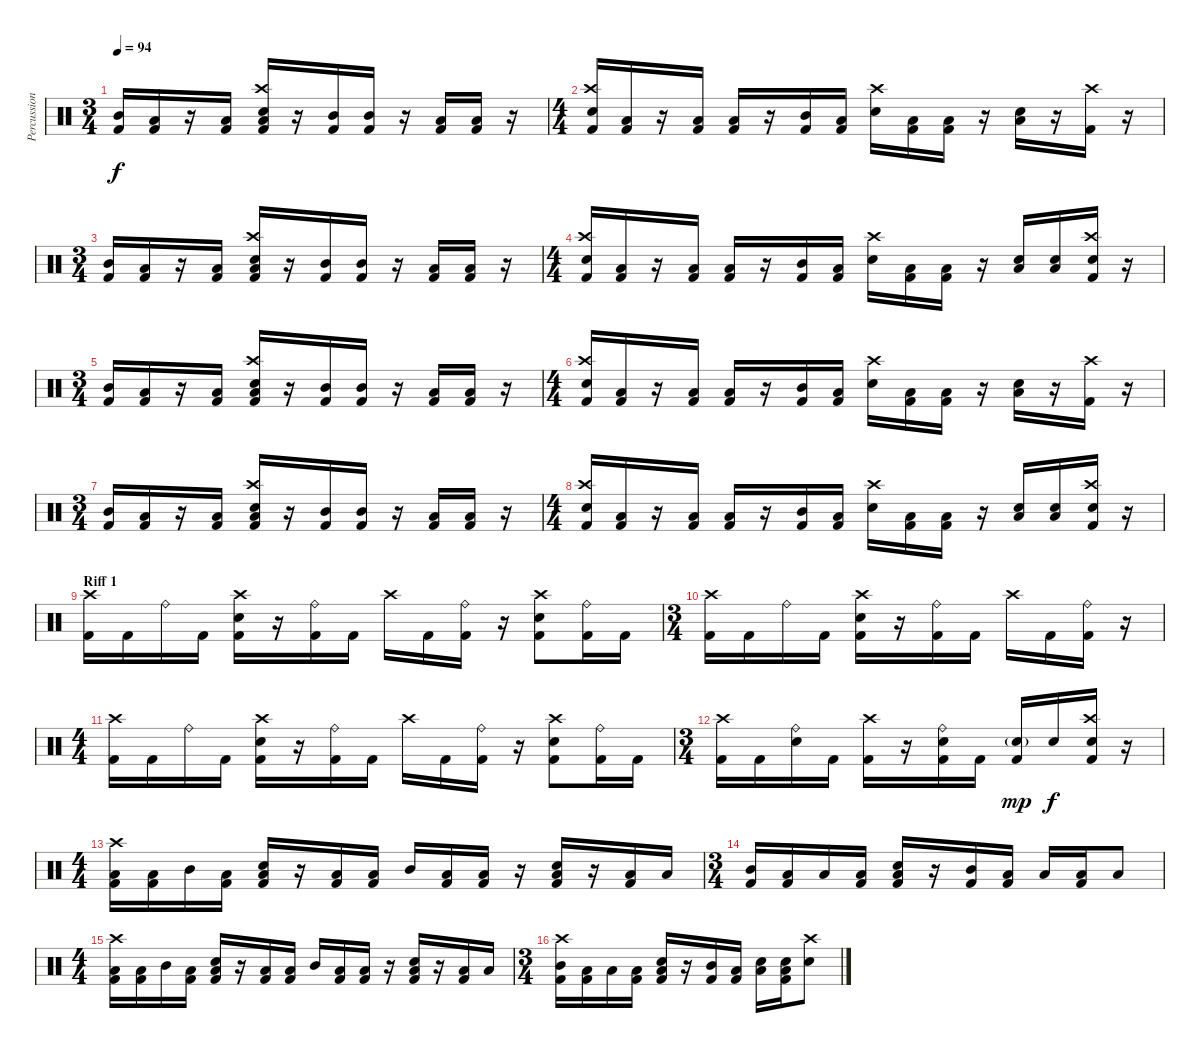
\track ("Percussion" "Percussion") {instrument percussion}
\staff {score}
\articulation defaults
\ts (3 4)
\tempo 94
\clef neutral
\ks c
("Mid Tom (hit)" "Kick (hit) 2").16{dy f} ("Low Tom (hit)" "Kick (hit) 2").16 r.16 ("Low Tom (hit)" "Kick (hit) 2").16 ("Crash high (hit)" "Electric Snare (hit)" "Low Floor Tom (hit)" "Kick (hit) 2").16 r.16 ("Mid Tom (hit)" "Kick (hit) 2").16 ("Mid Tom (hit)" "Kick (hit) 2").16 r.16 ("Low Tom (hit)" "Kick (hit) 2").16 ("Low Floor Tom (hit)" "Kick (hit) 2").16 r.16 |
\ts (4 4)
("Crash high (hit)" "Electric Snare (hit)" "Kick (hit) 2").16 ("Low Tom (hit)" "Kick (hit) 2").16 r.16 ("Low Tom (hit)" "Kick (hit) 2").16 ("Low Floor Tom (hit)" "Kick (hit) 2").16 r.16 ("Mid Tom (hit)" "Kick (hit) 2").16 ("Low Tom (hit)" "Kick (hit) 2").16 ("Crash high (hit)" "Electric Snare (hit)").16 ("Low Tom (hit)" "Kick (hit) 2").16 ("Low Floor Tom (hit)" "Kick (hit) 2").16 r.16 ("Electric Snare (hit)" "Low Floor Tom (hit)").16 r.16 ("Crash high (hit)" "Kick (hit) 2").16 r.16 |
\ts (3 4)
("Mid Tom (hit)" "Kick (hit) 2").16 ("Low Tom (hit)" "Kick (hit) 2").16 r.16 ("Low Tom (hit)" "Kick (hit) 2").16 ("Crash high (hit)" "Electric Snare (hit)" "Low Floor Tom (hit)" "Kick (hit) 2").16 r.16 ("Mid Tom (hit)" "Kick (hit) 2").16 ("Mid Tom (hit)" "Kick (hit) 2").16 r.16 ("Low Tom (hit)" "Kick (hit) 2").16 ("Low Floor Tom (hit)" "Kick (hit) 2").16 r.16 |
\ts (4 4)
("Crash high (hit)" "Electric Snare (hit)" "Kick (hit) 2").16 ("Low Tom (hit)" "Kick (hit) 2").16 r.16 ("Low Tom (hit)" "Kick (hit) 2").16 ("Low Floor Tom (hit)" "Kick (hit) 2").16 r.16 ("Mid Tom (hit)" "Kick (hit) 2").16 ("Low Tom (hit)" "Kick (hit) 2").16 ("Crash high (hit)" "Electric Snare (hit)").16 ("Low Tom (hit)" "Kick (hit) 2").16 ("Low Floor Tom (hit)" "Kick (hit) 2").16 r.16 ("Electric Snare (hit)" "Low Floor Tom (hit)").16 ("Electric Snare (hit)" "Low Floor Tom (hit)").16 ("Crash high (hit)" "Electric Snare (hit)" "Kick (hit) 2").16 r.16 |
\ts (3 4)
("Mid Tom (hit)" "Kick (hit) 2").16 ("Low Tom (hit)" "Kick (hit) 2").16 r.16 ("Low Tom (hit)" "Kick (hit) 2").16 ("Crash high (hit)" "Electric Snare (hit)" "Low Floor Tom (hit)" "Kick (hit) 2").16 r.16 ("Mid Tom (hit)" "Kick (hit) 2").16 ("Mid Tom (hit)" "Kick (hit) 2").16 r.16 ("Low Tom (hit)" "Kick (hit) 2").16 ("Low Floor Tom (hit)" "Kick (hit) 2").16 r.16 |
\ts (4 4)
("Crash high (hit)" "Electric Snare (hit)" "Kick (hit) 2").16 ("Low Tom (hit)" "Kick (hit) 2").16 r.16 ("Low Tom (hit)" "Kick (hit) 2").16 ("Low Floor Tom (hit)" "Kick (hit) 2").16 r.16 ("Mid Tom (hit)" "Kick (hit) 2").16 ("Low Tom (hit)" "Kick (hit) 2").16 ("Crash high (hit)" "Electric Snare (hit)").16 ("Low Tom (hit)" "Kick (hit) 2").16 ("Low Floor Tom (hit)" "Kick (hit) 2").16 r.16 ("Electric Snare (hit)" "Low Floor Tom (hit)").16 r.16 ("Crash high (hit)" "Kick (hit) 2").16 r.16 |
\ts (3 4)
("Mid Tom (hit)" "Kick (hit) 2").16 ("Low Tom (hit)" "Kick (hit) 2").16 r.16 ("Low Tom (hit)" "Kick (hit) 2").16 ("Crash high (hit)" "Electric Snare (hit)" "Low Floor Tom (hit)" "Kick (hit) 2").16 r.16 ("Mid Tom (hit)" "Kick (hit) 2").16 ("Mid Tom (hit)" "Kick (hit) 2").16 r.16 ("Low Tom (hit)" "Kick (hit) 2").16 ("Low Floor Tom (hit)" "Kick (hit) 2").16 r.16 |
\ts (4 4)
("Crash high (hit)" "Electric Snare (hit)" "Kick (hit) 2").16 ("Low Tom (hit)" "Kick (hit) 2").16 r.16 ("Low Tom (hit)" "Kick (hit) 2").16 ("Low Floor Tom (hit)" "Kick (hit) 2").16 r.16 ("Mid Tom (hit)" "Kick (hit) 2").16 ("Low Tom (hit)" "Kick (hit) 2").16 ("Crash high (hit)" "Electric Snare (hit)").16 ("Low Tom (hit)" "Kick (hit) 2").16 ("Low Floor Tom (hit)" "Kick (hit) 2").16 r.16 ("Electric Snare (hit)" "Low Floor Tom (hit)").16 ("Electric Snare (hit)" "Low Floor Tom (hit)").16 ("Crash high (hit)" "Electric Snare (hit)" "Kick (hit) 2").16 r.16 |
\section ("" "Riff 1")
("Crash high (hit)" "Kick (hit) 2").16 "Kick (hit) 2".16 "Ride (bell)".16 "Kick (hit) 2".16 ("Crash high (hit)" "Electric Snare (hit)" "Kick (hit) 2").16 r.16 ("Ride (bell)" "Kick (hit) 2").16 "Kick (hit) 2".16 "Crash high (hit)".16 "Kick (hit) 2".16 ("Ride (bell)" "Kick (hit) 2").16 r.16 ("Crash high (hit)" "Electric Snare (hit)" "Kick (hit) 2").8 ("Ride (bell)" "Kick (hit) 2").16 "Kick (hit) 2".16 |
\ts (3 4)
("Crash high (hit)" "Kick (hit) 2").16 "Kick (hit) 2".16 "Ride (bell)".16 "Kick (hit) 2".16 ("Crash high (hit)" "Electric Snare (hit)" "Kick (hit) 2").16 r.16 ("Ride (bell)" "Kick (hit) 2").16 "Kick (hit) 2".16 "Crash high (hit)".16 "Kick (hit) 2".16 ("Ride (bell)" "Kick (hit) 2").16 r.16 |
\ts (4 4)
("Crash high (hit)" "Kick (hit) 2").16 "Kick (hit) 2".16 "Ride (bell)".16 "Kick (hit) 2".16 ("Crash high (hit)" "Electric Snare (hit)" "Kick (hit) 2").16 r.16 ("Ride (bell)" "Kick (hit) 2").16 "Kick (hit) 2".16 "Crash high (hit)".16 "Kick (hit) 2".16 ("Ride (bell)" "Kick (hit) 2").16 r.16 ("Crash high (hit)" "Electric Snare (hit)" "Kick (hit) 2").8 ("Ride (bell)" "Kick (hit) 2").16 "Kick (hit) 2".16 |
\ts (3 4)
("Crash high (hit)" "Kick (hit) 2").16 "Kick (hit) 2".16 ("Ride (bell)" "Electric Snare (hit)").16 "Kick (hit) 2".16 ("Crash high (hit)" "Kick (hit) 2").16 r.16 ("Ride (bell)" "Electric Snare (hit)" "Kick (hit) 2").16 "Kick (hit) 2".16 ("Electric Snare (hit)"{g} "Kick (hit) 2").16{dy mp} "Electric Snare (hit)".16{dy f} ("Crash high (hit)" "Electric Snare (hit)" "Kick (hit) 2").16 r.16 |
\ts (4 4)
("Crash high (hit)" "Low Tom (hit)" "Kick (hit) 2").16 ("Low Floor Tom (hit)" "Kick (hit) 2").16 "Mid Tom (hit)".16 ("Low Tom (hit)" "Kick (hit) 2").16 ("Electric Snare (hit)" "Low Floor Tom (hit)" "Kick (hit) 2").16 r.16 ("Low Tom (hit)" "Kick (hit) 2").16 ("Low Floor Tom (hit)" "Kick (hit) 2").16 "Mid Tom (hit)".16 ("Low Tom (hit)" "Kick (hit) 2").16 ("Low Floor Tom (hit)" "Kick (hit) 2").16 r.16 ("Electric Snare (hit)" "Low Tom (hit)" "Kick (hit) 2").16 r.16 ("Low Tom (hit)" "Kick (hit) 2").16 "Low Floor Tom (hit)".16 |
\ts (3 4)
("Mid Tom (hit)" "Kick (hit) 2").16 ("Low Tom (hit)" "Kick (hit) 2").16 "Low Floor Tom (hit)".16 ("Low Tom (hit)" "Kick (hit) 2").16 ("Electric Snare (hit)" "Low Floor Tom (hit)" "Kick (hit) 2").16 r.16 ("Mid Tom (hit)" "Kick (hit) 2").16 ("Low Tom (hit)" "Kick (hit) 2").16 "Low Tom (hit)".16 ("Low Tom (hit)" "Kick (hit) 2").16 "Low Floor Tom (hit)".8 |
\ts (4 4)
("Crash high (hit)" "Low Tom (hit)" "Kick (hit) 2").16 ("Low Floor Tom (hit)" "Kick (hit) 2").16 "Mid Tom (hit)".16 ("Low Tom (hit)" "Kick (hit) 2").16 ("Electric Snare (hit)" "Low Floor Tom (hit)" "Kick (hit) 2").16 r.16 ("Low Tom (hit)" "Kick (hit) 2").16 ("Low Floor Tom (hit)" "Kick (hit) 2").16 "Mid Tom (hit)".16 ("Low Tom (hit)" "Kick (hit) 2").16 ("Low Floor Tom (hit)" "Kick (hit) 2").16 r.16 ("Electric Snare (hit)" "Low Tom (hit)" "Kick (hit) 2").16 r.16 ("Low Tom (hit)" "Kick (hit) 2").16 "Low Floor Tom (hit)".16 |
\ts (3 4)
("Crash high (hit)" "Mid Tom (hit)" "Kick (hit) 2").16 ("Low Tom (hit)" "Kick (hit) 2").16 "Low Floor Tom (hit)".16 ("Low Tom (hit)" "Kick (hit) 2").16 ("Electric Snare (hit)" "Low Floor Tom (hit)" "Kick (hit) 2").16 r.16 ("Mid Tom (hit)" "Kick (hit) 2").16 ("Low Tom (hit)" "Kick (hit) 2").16 ("Electric Snare (hit)" "Low Floor Tom (hit)").16 ("Electric Snare (hit)" "Low Floor Tom (hit)" "Kick (hit) 2").16 ("Crash high (hit)" "Electric Snare (hit)").8
